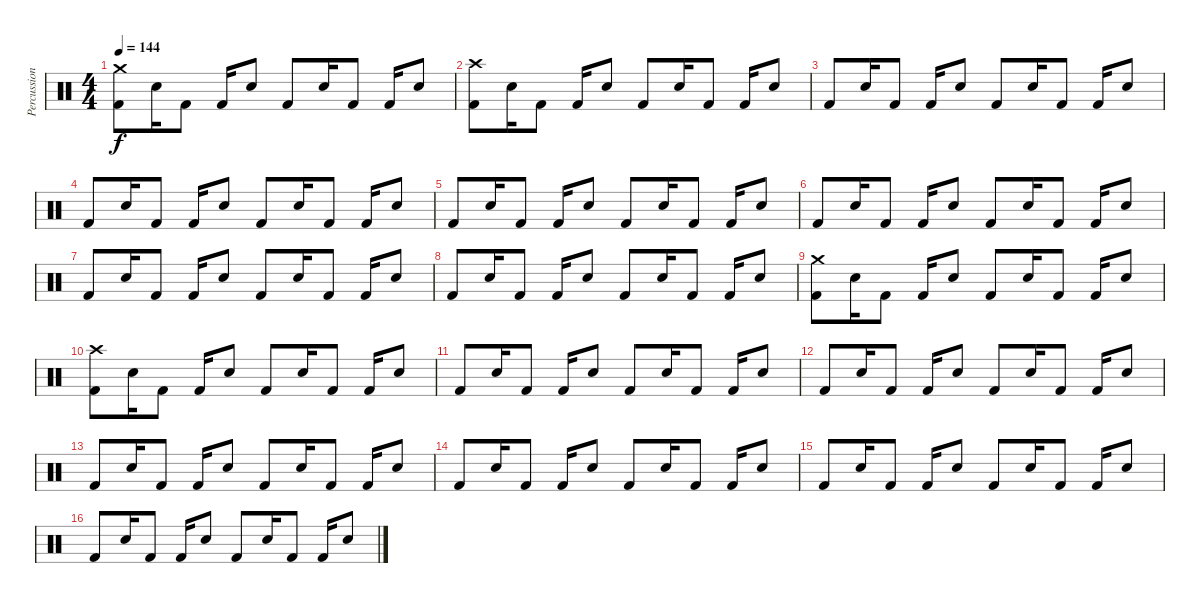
\track ("Percussion" "Percussion") {instrument percussion}
\staff {score}
\articulation defaults
\ts (4 4)
\tempo 144
\clef neutral
\ks c
("Crash medium (hit)" "Kick (hit) 2").8{dy f} "Snare (hit) 2".16 "Kick (hit) 2".8 "Kick (hit) 2".16 "Snare (hit) 2".8 "Kick (hit) 2".8 "Snare (hit) 2".16 "Kick (hit) 2".8 "Kick (hit) 2".16 "Snare (hit) 2".8 |
("Crash high (hit)" "Kick (hit) 2").8 "Snare (hit) 2".16 "Kick (hit) 2".8 "Kick (hit) 2".16 "Snare (hit) 2".8 "Kick (hit) 2".8 "Snare (hit) 2".16 "Kick (hit) 2".8 "Kick (hit) 2".16 "Snare (hit) 2".8 |
"Kick (hit) 2".8 "Snare (hit) 2".16 "Kick (hit) 2".8 "Kick (hit) 2".16 "Snare (hit) 2".8 "Kick (hit) 2".8 "Snare (hit) 2".16 "Kick (hit) 2".8 "Kick (hit) 2".16 "Snare (hit) 2".8 |
"Kick (hit) 2".8 "Snare (hit) 2".16 "Kick (hit) 2".8 "Kick (hit) 2".16 "Snare (hit) 2".8 "Kick (hit) 2".8 "Snare (hit) 2".16 "Kick (hit) 2".8 "Kick (hit) 2".16 "Snare (hit) 2".8 |
"Kick (hit) 2".8 "Snare (hit) 2".16 "Kick (hit) 2".8 "Kick (hit) 2".16 "Snare (hit) 2".8 "Kick (hit) 2".8 "Snare (hit) 2".16 "Kick (hit) 2".8 "Kick (hit) 2".16 "Snare (hit) 2".8 |
"Kick (hit) 2".8 "Snare (hit) 2".16 "Kick (hit) 2".8 "Kick (hit) 2".16 "Snare (hit) 2".8 "Kick (hit) 2".8 "Snare (hit) 2".16 "Kick (hit) 2".8 "Kick (hit) 2".16 "Snare (hit) 2".8 |
"Kick (hit) 2".8 "Snare (hit) 2".16 "Kick (hit) 2".8 "Kick (hit) 2".16 "Snare (hit) 2".8 "Kick (hit) 2".8 "Snare (hit) 2".16 "Kick (hit) 2".8 "Kick (hit) 2".16 "Snare (hit) 2".8 |
"Kick (hit) 2".8 "Snare (hit) 2".16 "Kick (hit) 2".8 "Kick (hit) 2".16 "Snare (hit) 2".8 "Kick (hit) 2".8 "Snare (hit) 2".16 "Kick (hit) 2".8 "Kick (hit) 2".16 "Snare (hit) 2".8 |
("Crash medium (hit)" "Kick (hit) 2").8 "Snare (hit) 2".16 "Kick (hit) 2".8 "Kick (hit) 2".16 "Snare (hit) 2".8 "Kick (hit) 2".8 "Snare (hit) 2".16 "Kick (hit) 2".8 "Kick (hit) 2".16 "Snare (hit) 2".8 |
("Crash high (hit)" "Kick (hit) 2").8 "Snare (hit) 2".16 "Kick (hit) 2".8 "Kick (hit) 2".16 "Snare (hit) 2".8 "Kick (hit) 2".8 "Snare (hit) 2".16 "Kick (hit) 2".8 "Kick (hit) 2".16 "Snare (hit) 2".8 |
"Kick (hit) 2".8 "Snare (hit) 2".16 "Kick (hit) 2".8 "Kick (hit) 2".16 "Snare (hit) 2".8 "Kick (hit) 2".8 "Snare (hit) 2".16 "Kick (hit) 2".8 "Kick (hit) 2".16 "Snare (hit) 2".8 |
"Kick (hit) 2".8 "Snare (hit) 2".16 "Kick (hit) 2".8 "Kick (hit) 2".16 "Snare (hit) 2".8 "Kick (hit) 2".8 "Snare (hit) 2".16 "Kick (hit) 2".8 "Kick (hit) 2".16 "Snare (hit) 2".8 |
"Kick (hit) 2".8 "Snare (hit) 2".16 "Kick (hit) 2".8 "Kick (hit) 2".16 "Snare (hit) 2".8 "Kick (hit) 2".8 "Snare (hit) 2".16 "Kick (hit) 2".8 "Kick (hit) 2".16 "Snare (hit) 2".8 |
"Kick (hit) 2".8 "Snare (hit) 2".16 "Kick (hit) 2".8 "Kick (hit) 2".16 "Snare (hit) 2".8 "Kick (hit) 2".8 "Snare (hit) 2".16 "Kick (hit) 2".8 "Kick (hit) 2".16 "Snare (hit) 2".8 |
"Kick (hit) 2".8 "Snare (hit) 2".16 "Kick (hit) 2".8 "Kick (hit) 2".16 "Snare (hit) 2".8 "Kick (hit) 2".8 "Snare (hit) 2".16 "Kick (hit) 2".8 "Kick (hit) 2".16 "Snare (hit) 2".8 |
"Kick (hit) 2".8 "Snare (hit) 2".16 "Kick (hit) 2".8 "Kick (hit) 2".16 "Snare (hit) 2".8 "Kick (hit) 2".8 "Snare (hit) 2".16 "Kick (hit) 2".8 "Kick (hit) 2".16 "Snare (hit) 2".8
